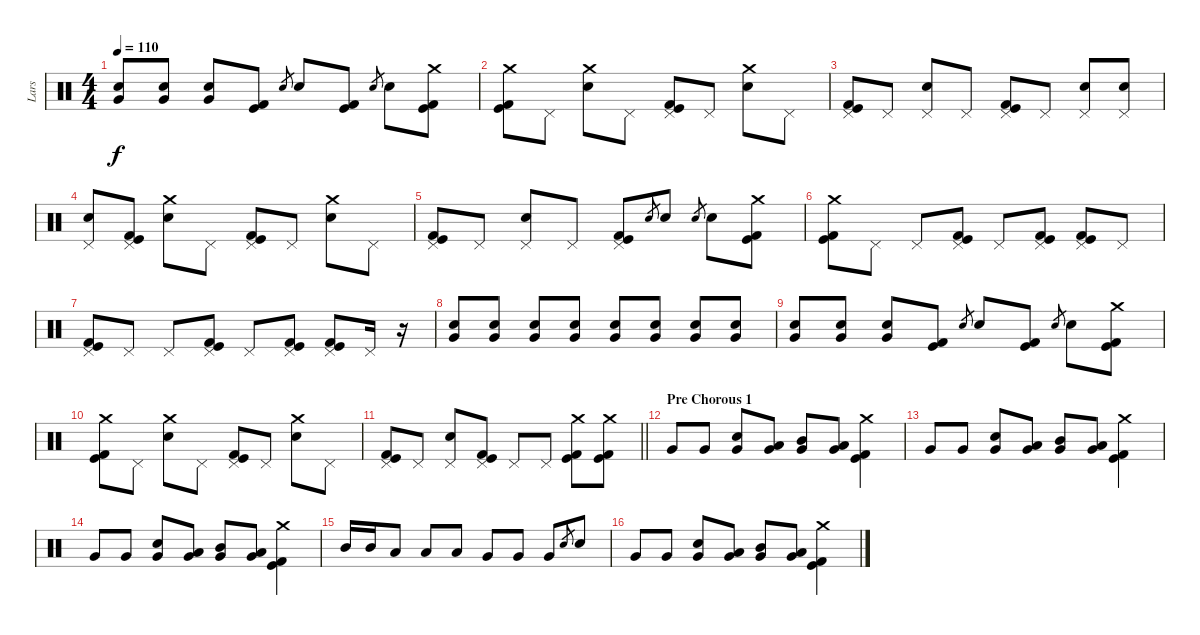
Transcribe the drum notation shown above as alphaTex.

\track ("Lars" "Lars") {instrument percussion}
\staff {score}
\articulation defaults
\ts (4 4)
\tempo 110
\clef neutral
\ks c
("Electric Snare (hit)" "Very Low Tom (hit)").8{dy f} ("Electric Snare (hit)" "Very Low Tom (hit)").8 ("Electric Snare (hit)" "Very Low Tom (hit)").8 ("Kick (hit)" "Kick (hit) 2").8 "Electric Snare (hit)".8{gr} "Electric Snare (hit)".8 ("Kick (hit)" "Kick (hit) 2").8 "Electric Snare (hit)".8{gr} "Electric Snare (hit)".8 ("Crash medium (hit)" "Kick (hit)" "Kick (hit) 2").8 |
("Crash medium (hit)" "Kick (hit)" "Kick (hit) 2").8 "Pedal Hi-Hat (hit)".8 ("Crash medium (hit)" "Electric Snare (hit)").8 "Pedal Hi-Hat (hit)".8 ("Pedal Hi-Hat (hit)" "Kick (hit)" "Kick (hit) 2").8 "Pedal Hi-Hat (hit)".8 ("Crash medium (hit)" "Electric Snare (hit)").8 "Pedal Hi-Hat (hit)".8 |
("Pedal Hi-Hat (hit)" "Kick (hit)" "Kick (hit) 2").8 "Pedal Hi-Hat (hit)".8 ("Pedal Hi-Hat (hit)" "Electric Snare (hit)").8 "Pedal Hi-Hat (hit)".8 ("Pedal Hi-Hat (hit)" "Kick (hit)" "Kick (hit) 2").8 "Pedal Hi-Hat (hit)".8 ("Pedal Hi-Hat (hit)" "Electric Snare (hit)").8 ("Pedal Hi-Hat (hit)" "Electric Snare (hit)").8 |
("Pedal Hi-Hat (hit)" "Electric Snare (hit)").8 ("Pedal Hi-Hat (hit)" "Kick (hit)" "Kick (hit) 2").8 ("Crash medium (hit)" "Electric Snare (hit)").8 "Pedal Hi-Hat (hit)".8 ("Pedal Hi-Hat (hit)" "Kick (hit)" "Kick (hit) 2").8 "Pedal Hi-Hat (hit)".8 ("Crash medium (hit)" "Electric Snare (hit)").8 "Pedal Hi-Hat (hit)".8 |
("Pedal Hi-Hat (hit)" "Kick (hit)" "Kick (hit) 2").8 "Pedal Hi-Hat (hit)".8 ("Pedal Hi-Hat (hit)" "Electric Snare (hit)").8 "Pedal Hi-Hat (hit)".8 ("Pedal Hi-Hat (hit)" "Kick (hit)" "Kick (hit) 2").8 "Electric Snare (hit)".8{gr} "Electric Snare (hit)".8 "Electric Snare (hit)".8{gr} "Electric Snare (hit)".8 ("Crash medium (hit)" "Kick (hit)" "Kick (hit) 2").8 |
("Crash medium (hit)" "Kick (hit)" "Kick (hit) 2").8 "Pedal Hi-Hat (hit)".8 "Pedal Hi-Hat (hit)".8 ("Pedal Hi-Hat (hit)" "Kick (hit)" "Kick (hit) 2").8 "Pedal Hi-Hat (hit)".8 ("Pedal Hi-Hat (hit)" "Kick (hit)" "Kick (hit) 2").8 ("Pedal Hi-Hat (hit)" "Kick (hit)" "Kick (hit) 2").8 "Pedal Hi-Hat (hit)".8 |
("Pedal Hi-Hat (hit)" "Kick (hit)" "Kick (hit) 2").8 "Pedal Hi-Hat (hit)".8 "Pedal Hi-Hat (hit)".8 ("Pedal Hi-Hat (hit)" "Kick (hit)" "Kick (hit) 2").8 "Pedal Hi-Hat (hit)".8 ("Pedal Hi-Hat (hit)" "Kick (hit)" "Kick (hit) 2").8 ("Pedal Hi-Hat (hit)" "Kick (hit)" "Kick (hit) 2").8 "Pedal Hi-Hat (hit)".16 r.16{volume 5} |
("Electric Snare (hit)" "Very Low Tom (hit)").8{volume 16} ("Electric Snare (hit)" "Very Low Tom (hit)").8 ("Electric Snare (hit)" "Very Low Tom (hit)").8 ("Electric Snare (hit)" "Very Low Tom (hit)").8 ("Electric Snare (hit)" "Very Low Tom (hit)").8 ("Electric Snare (hit)" "Very Low Tom (hit)").8 ("Electric Snare (hit)" "Very Low Tom (hit)").8 ("Electric Snare (hit)" "Very Low Tom (hit)").8 |
("Electric Snare (hit)" "Very Low Tom (hit)").8 ("Electric Snare (hit)" "Very Low Tom (hit)").8 ("Electric Snare (hit)" "Very Low Tom (hit)").8 ("Kick (hit)" "Kick (hit) 2").8 "Electric Snare (hit)".8{gr} "Electric Snare (hit)".8 ("Kick (hit)" "Kick (hit) 2").8 "Electric Snare (hit)".8{gr} "Electric Snare (hit)".8 ("Crash medium (hit)" "Kick (hit)" "Kick (hit) 2").8 |
("Crash medium (hit)" "Kick (hit)" "Kick (hit) 2").8 "Pedal Hi-Hat (hit)".8 ("Crash medium (hit)" "Electric Snare (hit)").8 "Pedal Hi-Hat (hit)".8 ("Pedal Hi-Hat (hit)" "Kick (hit)" "Kick (hit) 2").8 "Pedal Hi-Hat (hit)".8 ("Crash medium (hit)" "Electric Snare (hit)").8 "Pedal Hi-Hat (hit)".8 |
\barLineRight lightlight
("Pedal Hi-Hat (hit)" "Kick (hit)" "Kick (hit) 2").8 "Pedal Hi-Hat (hit)".8 ("Pedal Hi-Hat (hit)" "Electric Snare (hit)").8 ("Pedal Hi-Hat (hit)" "Kick (hit)" "Kick (hit) 2").8 "Pedal Hi-Hat (hit)".8 "Pedal Hi-Hat (hit)".8 ("Crash medium (hit)" "Kick (hit)" "Kick (hit) 2").8 ("Crash medium (hit)" "Kick (hit)" "Kick (hit) 2").8 |
\section ("" "Pre Chorous 1")
"Very Low Tom (hit)".8 "Very Low Tom (hit)".8 ("Very Low Tom (hit)" "Electric Snare (hit)").8 ("Very Low Tom (hit)" "Low Tom (hit)").8 ("Very Low Tom (hit)" "Mid Tom (hit)").8 ("Very Low Tom (hit)" "Low Tom (hit)").8 ("Crash medium (hit)" "Kick (hit)" "Kick (hit) 2").4 |
"Very Low Tom (hit)".8 "Very Low Tom (hit)".8 ("Very Low Tom (hit)" "Electric Snare (hit)").8 ("Very Low Tom (hit)" "Low Tom (hit)").8 ("Very Low Tom (hit)" "Mid Tom (hit)").8 ("Very Low Tom (hit)" "Low Tom (hit)").8 ("Crash medium (hit)" "Kick (hit)" "Kick (hit) 2").4 |
"Very Low Tom (hit)".8 "Very Low Tom (hit)".8 ("Very Low Tom (hit)" "Electric Snare (hit)").8 ("Very Low Tom (hit)" "Low Tom (hit)").8 ("Very Low Tom (hit)" "Mid Tom (hit)").8 ("Very Low Tom (hit)" "Low Tom (hit)").8 ("Crash medium (hit)" "Kick (hit)" "Kick (hit) 2").4 |
"Mid Tom (hit)".16 "Mid Tom (hit)".16 "Low Tom (hit)".8 "Low Tom (hit)".8 "Low Tom (hit)".8 "Very Low Tom (hit)".8 "Very Low Tom (hit)".8 "Very Low Tom (hit)".8 "Electric Snare (hit)".8{gr} "Electric Snare (hit)".8 |
"Very Low Tom (hit)".8 "Very Low Tom (hit)".8 ("Very Low Tom (hit)" "Electric Snare (hit)").8 ("Very Low Tom (hit)" "Low Tom (hit)").8 ("Very Low Tom (hit)" "Mid Tom (hit)").8 ("Very Low Tom (hit)" "Low Tom (hit)").8 ("Crash medium (hit)" "Kick (hit)" "Kick (hit) 2").4
